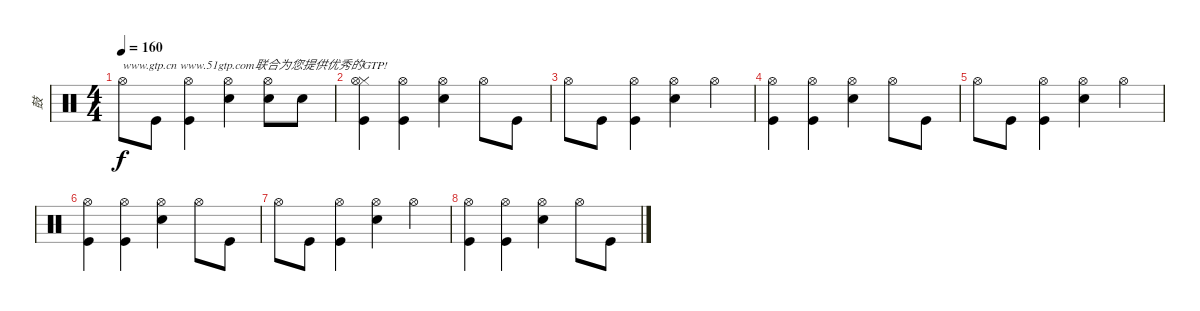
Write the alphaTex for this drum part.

\track ("鼓" "鼓") {instrument percussion}
\staff {score}
\articulation defaults
\ts (4 4)
\tempo 160
\clef neutral
\ks c "Hi-Hat (open)".8{txt "www.gtp.cn www.51gtp.com联合为您提供优秀的GTP!" dy f} "Kick (hit)".8
("Hi-Hat (open)" "Kick (hit)").4 ("Hi-Hat (open)" "Electric Snare (hit)").4 ("Hi-Hat (open)" "Electric Snare (hit)").8 "Electric Snare (hit)".8 |
("Hi-Hat (closed)" "Hi-Hat (open)" "Kick (hit)").4 ("Hi-Hat (open)" "Kick (hit)").4 ("Hi-Hat (open)" "Electric Snare (hit)").4 "Hi-Hat (open)".8 "Kick (hit)".8 |
"Hi-Hat (open)".8 "Kick (hit)".8 ("Hi-Hat (open)" "Kick (hit)").4 ("Hi-Hat (open)" "Electric Snare (hit)").4 "Hi-Hat (open)".4 |
("Hi-Hat (open)" "Kick (hit)").4 ("Hi-Hat (open)" "Kick (hit)").4 ("Hi-Hat (open)" "Electric Snare (hit)").4 "Hi-Hat (open)".8 "Kick (hit)".8 |
"Hi-Hat (open)".8 "Kick (hit)".8 ("Hi-Hat (open)" "Kick (hit)").4 ("Hi-Hat (open)" "Electric Snare (hit)").4 "Hi-Hat (open)".4 |
("Hi-Hat (open)" "Kick (hit)").4 ("Hi-Hat (open)" "Kick (hit)").4 ("Hi-Hat (open)" "Electric Snare (hit)").4 "Hi-Hat (open)".8 "Kick (hit)".8 |
"Hi-Hat (open)".8 "Kick (hit)".8 ("Hi-Hat (open)" "Kick (hit)").4 ("Hi-Hat (open)" "Electric Snare (hit)").4 "Hi-Hat (open)".4 |
("Hi-Hat (open)" "Kick (hit)").4 ("Hi-Hat (open)" "Kick (hit)").4 ("Hi-Hat (open)" "Electric Snare (hit)").4 "Hi-Hat (open)".8 "Kick (hit)".8
